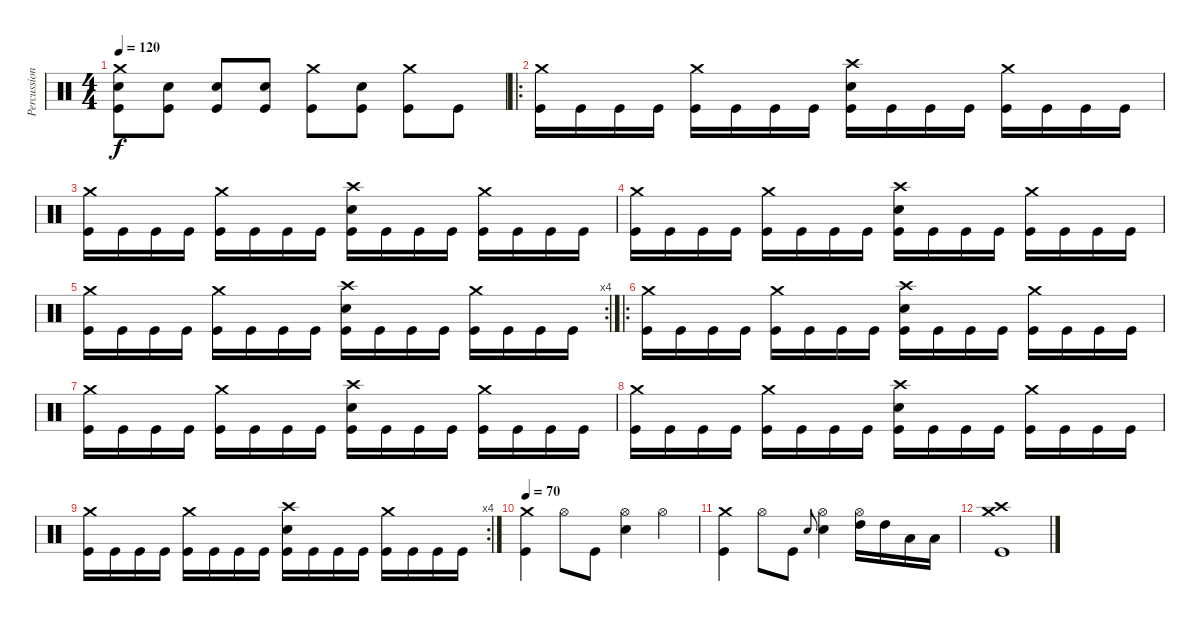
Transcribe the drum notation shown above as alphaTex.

\track ("Percussion" "Percussion") {instrument percussion}
\staff {score}
\articulation defaults
\ts (4 4)
\tempo 120
\clef neutral
\ks c
("Crash medium (hit)" "Snare (hit) 2" "Kick (hit)").8{dy f} ("Snare (hit) 2" "Kick (hit)").8 ("Snare (hit) 2" "Kick (hit)").8 ("Snare (hit) 2" "Kick (hit)").8 ("Crash medium (hit)" "Kick (hit)").8 ("Snare (hit) 2" "Kick (hit)").8 ("Crash medium (hit)" "Kick (hit)").8 "Kick (hit)".8 |
\ro
("Crash medium (hit)" "Kick (hit)").16 "Kick (hit)".16 "Kick (hit)".16 "Kick (hit)".16 ("Crash medium (hit)" "Kick (hit)").16 "Kick (hit)".16 "Kick (hit)".16 "Kick (hit)".16 ("Crash high (hit)" "Snare (hit) 2" "Kick (hit)").16 "Kick (hit)".16 "Kick (hit)".16 "Kick (hit)".16 ("Crash medium (hit)" "Kick (hit)").16 "Kick (hit)".16 "Kick (hit)".16 "Kick (hit)".16 |
("Crash medium (hit)" "Kick (hit)").16 "Kick (hit)".16 "Kick (hit)".16 "Kick (hit)".16 ("Crash medium (hit)" "Kick (hit)").16 "Kick (hit)".16 "Kick (hit)".16 "Kick (hit)".16 ("Crash high (hit)" "Snare (hit) 2" "Kick (hit)").16 "Kick (hit)".16 "Kick (hit)".16 "Kick (hit)".16 ("Crash medium (hit)" "Kick (hit)").16 "Kick (hit)".16 "Kick (hit)".16 "Kick (hit)".16 |
("Crash medium (hit)" "Kick (hit)").16 "Kick (hit)".16 "Kick (hit)".16 "Kick (hit)".16 ("Crash medium (hit)" "Kick (hit)").16 "Kick (hit)".16 "Kick (hit)".16 "Kick (hit)".16 ("Crash high (hit)" "Snare (hit) 2" "Kick (hit)").16 "Kick (hit)".16 "Kick (hit)".16 "Kick (hit)".16 ("Crash medium (hit)" "Kick (hit)").16 "Kick (hit)".16 "Kick (hit)".16 "Kick (hit)".16 |
\rc 4
("Crash medium (hit)" "Kick (hit)").16 "Kick (hit)".16 "Kick (hit)".16 "Kick (hit)".16 ("Crash medium (hit)" "Kick (hit)").16 "Kick (hit)".16 "Kick (hit)".16 "Kick (hit)".16 ("Crash high (hit)" "Snare (hit) 2" "Kick (hit)").16 "Kick (hit)".16 "Kick (hit)".16 "Kick (hit)".16 ("Crash medium (hit)" "Kick (hit)").16 "Kick (hit)".16 "Kick (hit)".16 "Kick (hit)".16 |
\ro
("Crash medium (hit)" "Kick (hit)").16 "Kick (hit)".16 "Kick (hit)".16 "Kick (hit)".16 ("Crash medium (hit)" "Kick (hit)").16 "Kick (hit)".16 "Kick (hit)".16 "Kick (hit)".16 ("Crash high (hit)" "Snare (hit) 2" "Kick (hit)").16 "Kick (hit)".16 "Kick (hit)".16 "Kick (hit)".16 ("Crash medium (hit)" "Kick (hit)").16 "Kick (hit)".16 "Kick (hit)".16 "Kick (hit)".16 |
("Crash medium (hit)" "Kick (hit)").16 "Kick (hit)".16 "Kick (hit)".16 "Kick (hit)".16 ("Crash medium (hit)" "Kick (hit)").16 "Kick (hit)".16 "Kick (hit)".16 "Kick (hit)".16 ("Crash high (hit)" "Snare (hit) 2" "Kick (hit)").16 "Kick (hit)".16 "Kick (hit)".16 "Kick (hit)".16 ("Crash medium (hit)" "Kick (hit)").16 "Kick (hit)".16 "Kick (hit)".16 "Kick (hit)".16 |
("Crash medium (hit)" "Kick (hit)").16 "Kick (hit)".16 "Kick (hit)".16 "Kick (hit)".16 ("Crash medium (hit)" "Kick (hit)").16 "Kick (hit)".16 "Kick (hit)".16 "Kick (hit)".16 ("Crash high (hit)" "Snare (hit) 2" "Kick (hit)").16 "Kick (hit)".16 "Kick (hit)".16 "Kick (hit)".16 ("Crash medium (hit)" "Kick (hit)").16 "Kick (hit)".16 "Kick (hit)".16 "Kick (hit)".16 |
\rc 4
("Crash medium (hit)" "Kick (hit)").16 "Kick (hit)".16 "Kick (hit)".16 "Kick (hit)".16 ("Crash medium (hit)" "Kick (hit)").16 "Kick (hit)".16 "Kick (hit)".16 "Kick (hit)".16 ("Crash high (hit)" "Snare (hit) 2" "Kick (hit)").16 "Kick (hit)".16 "Kick (hit)".16 "Kick (hit)".16 ("Crash medium (hit)" "Kick (hit)").16 "Kick (hit)".16 "Kick (hit)".16 "Kick (hit)".16 |
\tempo 70
("Crash medium (hit)" "Kick (hit)").4 "Hi-Hat (open)".8 "Kick (hit)".8 ("Hi-Hat (open)" "Snare (hit) 2").4 "Hi-Hat (open)".4 |
("Crash medium (hit)" "Kick (hit)").4 "Hi-Hat (open)".8 "Kick (hit)".8 "Snare (hit) 2".8{gr onbeat} ("Hi-Hat (open)" "Snare (hit) 2").4 ("Hi-Hat (open)" "High Tom (hit)").16 "High Tom (hit)".16 "Low Tom (hit)".16 "Low Tom (hit)".16 |
("Crash medium (hit)" "Crash high (hit)" "Kick (hit)").1
